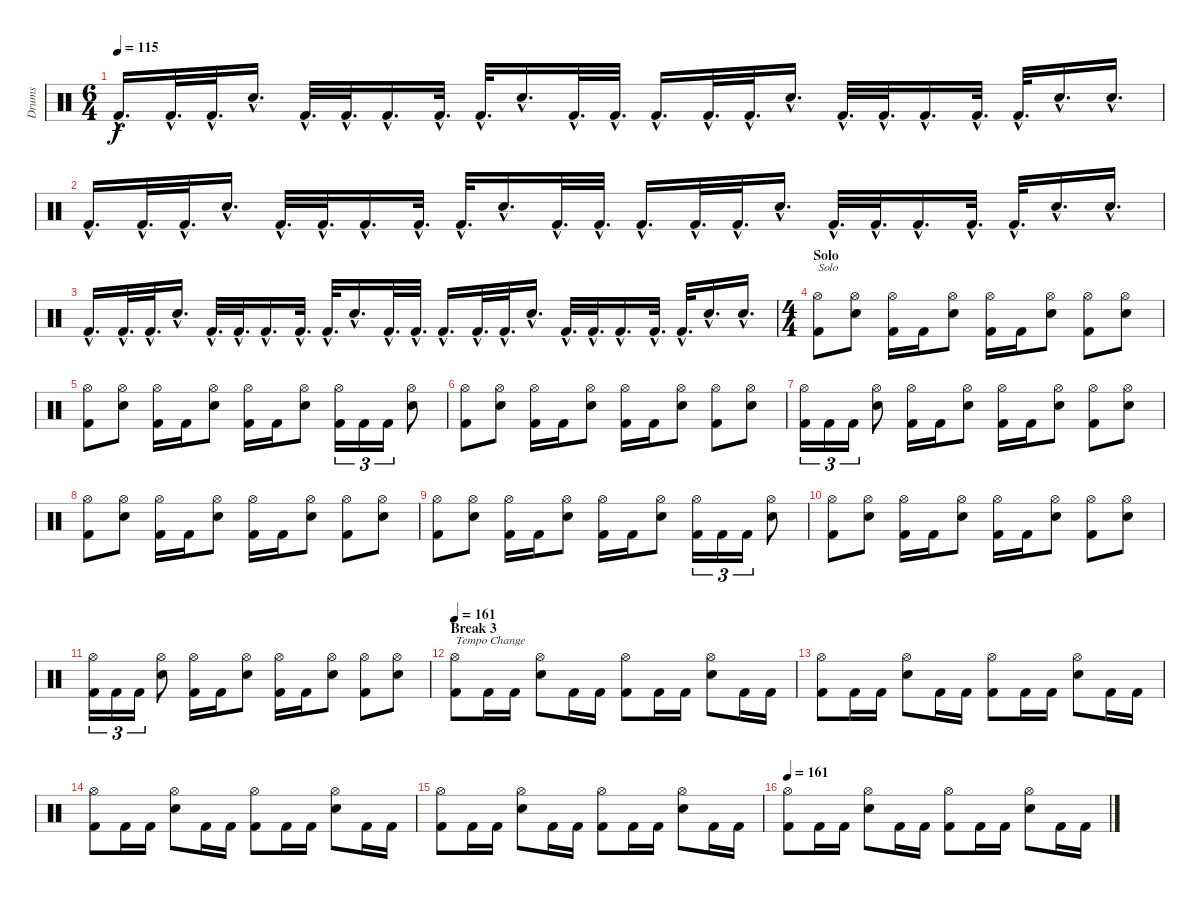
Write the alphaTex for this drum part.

\track ("Drums" "Drums") {instrument percussion}
\staff {score}
\articulation defaults
\ts (6 4)
\tempo 115
\clef neutral
\ks c "Kick (hit) 2"{hac}.16{d dy f} "Kick (hit) 2"{hac}.32{d} "Kick (hit) 2"{hac}.32{d} "Electric Snare (hit)"{hac}.16{d} "Kick (hit) 2"{hac}.32{d} "Kick (hit) 2"{hac}.32{d} "Kick (hit) 2"{hac}.16{d} "Kick (hit) 2"{hac}.32{d} "Kick (hit) 2"{hac}.32{d} "Electric Snare (hit)"{hac}.16{d} "Kick (hit) 2"{hac}.32{d} "Kick (hit) 2"{hac}.32{d} "Kick (hit) 2"{hac}.16{d} "Kick (hit) 2"{hac}.32{d} "Kick (hit) 2"{hac}.32{d} "Electric Snare (hit)"{hac}.16{d} "Kick (hit) 2"{hac}.32{d} "Kick (hit) 2"{hac}.32{d} "Kick (hit) 2"{hac}.16{d} "Kick (hit) 2"{hac}.32{d} "Kick (hit) 2"{hac}.32{d} "Electric Snare (hit)"{hac}.16{d} "Electric Snare (hit)"{hac}.16{d}
|
"Kick (hit) 2"{hac}.16{d} "Kick (hit) 2"{hac}.32{d} "Kick (hit) 2"{hac}.32{d} "Electric Snare (hit)"{hac}.16{d} "Kick (hit) 2"{hac}.32{d} "Kick (hit) 2"{hac}.32{d} "Kick (hit) 2"{hac}.16{d} "Kick (hit) 2"{hac}.32{d} "Kick (hit) 2"{hac}.32{d} "Electric Snare (hit)"{hac}.16{d} "Kick (hit) 2"{hac}.32{d} "Kick (hit) 2"{hac}.32{d} "Kick (hit) 2"{hac}.16{d} "Kick (hit) 2"{hac}.32{d} "Kick (hit) 2"{hac}.32{d} "Electric Snare (hit)"{hac}.16{d} "Kick (hit) 2"{hac}.32{d} "Kick (hit) 2"{hac}.32{d} "Kick (hit) 2"{hac}.16{d} "Kick (hit) 2"{hac}.32{d} "Kick (hit) 2"{hac}.32{d} "Electric Snare (hit)"{hac}.16{d} "Electric Snare (hit)"{hac}.16{d} |
"Kick (hit) 2"{hac}.16{d} "Kick (hit) 2"{hac}.32{d} "Kick (hit) 2"{hac}.32{d} "Electric Snare (hit)"{hac}.16{d} "Kick (hit) 2"{hac}.32{d} "Kick (hit) 2"{hac}.32{d} "Kick (hit) 2"{hac}.16{d} "Kick (hit) 2"{hac}.32{d} "Kick (hit) 2"{hac}.32{d} "Electric Snare (hit)"{hac}.16{d} "Kick (hit) 2"{hac}.32{d} "Kick (hit) 2"{hac}.32{d} "Kick (hit) 2"{hac}.16{d} "Kick (hit) 2"{hac}.32{d} "Kick (hit) 2"{hac}.32{d} "Electric Snare (hit)"{hac}.16{d} "Kick (hit) 2"{hac}.32{d} "Kick (hit) 2"{hac}.32{d} "Kick (hit) 2"{hac}.16{d} "Kick (hit) 2"{hac}.32{d} "Kick (hit) 2"{hac}.32{d} "Electric Snare (hit)"{hac}.16{d} "Electric Snare (hit)"{hac}.16{d} |
\ts (4 4)
\section ("" "Solo")
("Kick (hit) 2" "Hi-Hat (open)").8{txt "Solo"} ("Electric Snare (hit)" "Hi-Hat (open)").8 ("Kick (hit) 2" "Hi-Hat (open)").16 "Kick (hit) 2".16 ("Electric Snare (hit)" "Hi-Hat (open)").8 ("Kick (hit) 2" "Hi-Hat (open)").16 "Kick (hit) 2".16 ("Electric Snare (hit)" "Hi-Hat (open)").8 ("Kick (hit) 2" "Hi-Hat (open)").8 ("Electric Snare (hit)" "Hi-Hat (open)").8 |
("Kick (hit) 2" "Hi-Hat (open)").8 ("Electric Snare (hit)" "Hi-Hat (open)").8 ("Kick (hit) 2" "Hi-Hat (open)").16 "Kick (hit) 2".16 ("Electric Snare (hit)" "Hi-Hat (open)").8 ("Kick (hit) 2" "Hi-Hat (open)").16 "Kick (hit) 2".16 ("Electric Snare (hit)" "Hi-Hat (open)").8 ("Kick (hit) 2" "Hi-Hat (open)").16{tu (3 2)} "Kick (hit) 2".16{tu (3 2)} "Kick (hit) 2".16{tu (3 2)} ("Electric Snare (hit)" "Hi-Hat (open)").8 |
("Kick (hit) 2" "Hi-Hat (open)").8 ("Electric Snare (hit)" "Hi-Hat (open)").8 ("Kick (hit) 2" "Hi-Hat (open)").16 "Kick (hit) 2".16 ("Electric Snare (hit)" "Hi-Hat (open)").8 ("Kick (hit) 2" "Hi-Hat (open)").16 "Kick (hit) 2".16 ("Electric Snare (hit)" "Hi-Hat (open)").8 ("Kick (hit) 2" "Hi-Hat (open)").8 ("Electric Snare (hit)" "Hi-Hat (open)").8 |
("Kick (hit) 2" "Hi-Hat (open)").16{tu (3 2)} "Kick (hit) 2".16{tu (3 2)} "Kick (hit) 2".16{tu (3 2)} ("Electric Snare (hit)" "Hi-Hat (open)").8 ("Kick (hit) 2" "Hi-Hat (open)").16 "Kick (hit) 2".16 ("Electric Snare (hit)" "Hi-Hat (open)").8 ("Kick (hit) 2" "Hi-Hat (open)").16 "Kick (hit) 2".16 ("Electric Snare (hit)" "Hi-Hat (open)").8 ("Kick (hit) 2" "Hi-Hat (open)").8 ("Electric Snare (hit)" "Hi-Hat (open)").8 |
("Kick (hit) 2" "Hi-Hat (open)").8 ("Electric Snare (hit)" "Hi-Hat (open)").8 ("Kick (hit) 2" "Hi-Hat (open)").16 "Kick (hit) 2".16 ("Electric Snare (hit)" "Hi-Hat (open)").8 ("Kick (hit) 2" "Hi-Hat (open)").16 "Kick (hit) 2".16 ("Electric Snare (hit)" "Hi-Hat (open)").8 ("Kick (hit) 2" "Hi-Hat (open)").8 ("Electric Snare (hit)" "Hi-Hat (open)").8 |
("Kick (hit) 2" "Hi-Hat (open)").8 ("Electric Snare (hit)" "Hi-Hat (open)").8 ("Kick (hit) 2" "Hi-Hat (open)").16 "Kick (hit) 2".16 ("Electric Snare (hit)" "Hi-Hat (open)").8 ("Kick (hit) 2" "Hi-Hat (open)").16 "Kick (hit) 2".16 ("Electric Snare (hit)" "Hi-Hat (open)").8 ("Kick (hit) 2" "Hi-Hat (open)").16{tu (3 2)} "Kick (hit) 2".16{tu (3 2)} "Kick (hit) 2".16{tu (3 2)} ("Electric Snare (hit)" "Hi-Hat (open)").8 |
("Kick (hit) 2" "Hi-Hat (open)").8 ("Electric Snare (hit)" "Hi-Hat (open)").8 ("Kick (hit) 2" "Hi-Hat (open)").16 "Kick (hit) 2".16 ("Electric Snare (hit)" "Hi-Hat (open)").8 ("Kick (hit) 2" "Hi-Hat (open)").16 "Kick (hit) 2".16 ("Electric Snare (hit)" "Hi-Hat (open)").8 ("Kick (hit) 2" "Hi-Hat (open)").8 ("Electric Snare (hit)" "Hi-Hat (open)").8 |
("Kick (hit) 2" "Hi-Hat (open)").16{tu (3 2)} "Kick (hit) 2".16{tu (3 2)} "Kick (hit) 2".16{tu (3 2)} ("Electric Snare (hit)" "Hi-Hat (open)").8 ("Kick (hit) 2" "Hi-Hat (open)").16 "Kick (hit) 2".16 ("Electric Snare (hit)" "Hi-Hat (open)").8 ("Kick (hit) 2" "Hi-Hat (open)").16 "Kick (hit) 2".16 ("Electric Snare (hit)" "Hi-Hat (open)").8 ("Kick (hit) 2" "Hi-Hat (open)").8 ("Electric Snare (hit)" "Hi-Hat (open)").8 |
\section ("" "Break 3")
\tempo 161
("Kick (hit) 2" "Hi-Hat (open)").8{txt "Tempo Change"} "Kick (hit) 2".16 "Kick (hit) 2".16 ("Electric Snare (hit)" "Hi-Hat (open)").8 "Kick (hit) 2".16 "Kick (hit) 2".16 ("Kick (hit) 2" "Hi-Hat (open)").8 "Kick (hit) 2".16 "Kick (hit) 2".16 ("Electric Snare (hit)" "Hi-Hat (open)").8 "Kick (hit) 2".16 "Kick (hit) 2".16 |
("Kick (hit) 2" "Hi-Hat (open)").8 "Kick (hit) 2".16 "Kick (hit) 2".16 ("Electric Snare (hit)" "Hi-Hat (open)").8 "Kick (hit) 2".16 "Kick (hit) 2".16 ("Kick (hit) 2" "Hi-Hat (open)").8 "Kick (hit) 2".16 "Kick (hit) 2".16 ("Electric Snare (hit)" "Hi-Hat (open)").8 "Kick (hit) 2".16 "Kick (hit) 2".16 |
("Kick (hit) 2" "Hi-Hat (open)").8 "Kick (hit) 2".16 "Kick (hit) 2".16 ("Electric Snare (hit)" "Hi-Hat (open)").8 "Kick (hit) 2".16 "Kick (hit) 2".16 ("Kick (hit) 2" "Hi-Hat (open)").8 "Kick (hit) 2".16 "Kick (hit) 2".16 ("Electric Snare (hit)" "Hi-Hat (open)").8 "Kick (hit) 2".16 "Kick (hit) 2".16 |
("Kick (hit) 2" "Hi-Hat (open)").8 "Kick (hit) 2".16 "Kick (hit) 2".16 ("Electric Snare (hit)" "Hi-Hat (open)").8 "Kick (hit) 2".16 "Kick (hit) 2".16 ("Kick (hit) 2" "Hi-Hat (open)").8 "Kick (hit) 2".16 "Kick (hit) 2".16 ("Electric Snare (hit)" "Hi-Hat (open)").8 "Kick (hit) 2".16 "Kick (hit) 2".16 |
\tempo 161
("Kick (hit) 2" "Hi-Hat (open)").8 "Kick (hit) 2".16 "Kick (hit) 2".16 ("Electric Snare (hit)" "Hi-Hat (open)").8 "Kick (hit) 2".16 "Kick (hit) 2".16 ("Kick (hit) 2" "Hi-Hat (open)").8 "Kick (hit) 2".16 "Kick (hit) 2".16 ("Electric Snare (hit)" "Hi-Hat (open)").8 "Kick (hit) 2".16 "Kick (hit) 2".16
